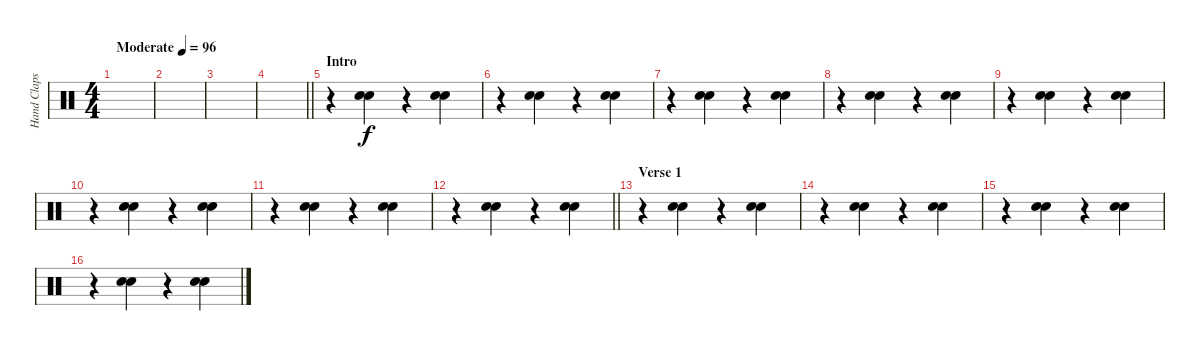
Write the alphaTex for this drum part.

\track ("Hand Claps" "Hand Claps") {instrument percussion}
\staff {score}
\articulation defaults
\ts (4 4)
\tempo (96 "Moderate")
\clef neutral
\ks c
|
|
|
\barLineRight lightlight
|
\section ("" "Intro")
r.4 ("Hand Clap (hit)" "Hand Clap (hit)").4 r.4 ("Hand Clap (hit)" "Hand Clap (hit)").4 |
r.4 ("Hand Clap (hit)" "Hand Clap (hit)").4 r.4 ("Hand Clap (hit)" "Hand Clap (hit)").4 |
r.4 ("Hand Clap (hit)" "Hand Clap (hit)").4 r.4 ("Hand Clap (hit)" "Hand Clap (hit)").4 |
r.4 ("Hand Clap (hit)" "Hand Clap (hit)").4 r.4 ("Hand Clap (hit)" "Hand Clap (hit)").4 |
r.4 ("Hand Clap (hit)" "Hand Clap (hit)").4 r.4 ("Hand Clap (hit)" "Hand Clap (hit)").4 |
r.4 ("Hand Clap (hit)" "Hand Clap (hit)").4 r.4 ("Hand Clap (hit)" "Hand Clap (hit)").4 |
r.4 ("Hand Clap (hit)" "Hand Clap (hit)").4 r.4 ("Hand Clap (hit)" "Hand Clap (hit)").4 |
\barLineRight lightlight
r.4 ("Hand Clap (hit)" "Hand Clap (hit)").4 r.4 ("Hand Clap (hit)" "Hand Clap (hit)").4 |
\section ("" "Verse 1")
r.4 ("Hand Clap (hit)" "Hand Clap (hit)").4 r.4 ("Hand Clap (hit)" "Hand Clap (hit)").4 |
r.4 ("Hand Clap (hit)" "Hand Clap (hit)").4 r.4 ("Hand Clap (hit)" "Hand Clap (hit)").4 |
r.4 ("Hand Clap (hit)" "Hand Clap (hit)").4 r.4 ("Hand Clap (hit)" "Hand Clap (hit)").4 |
r.4 ("Hand Clap (hit)" "Hand Clap (hit)").4 r.4 ("Hand Clap (hit)" "Hand Clap (hit)").4
